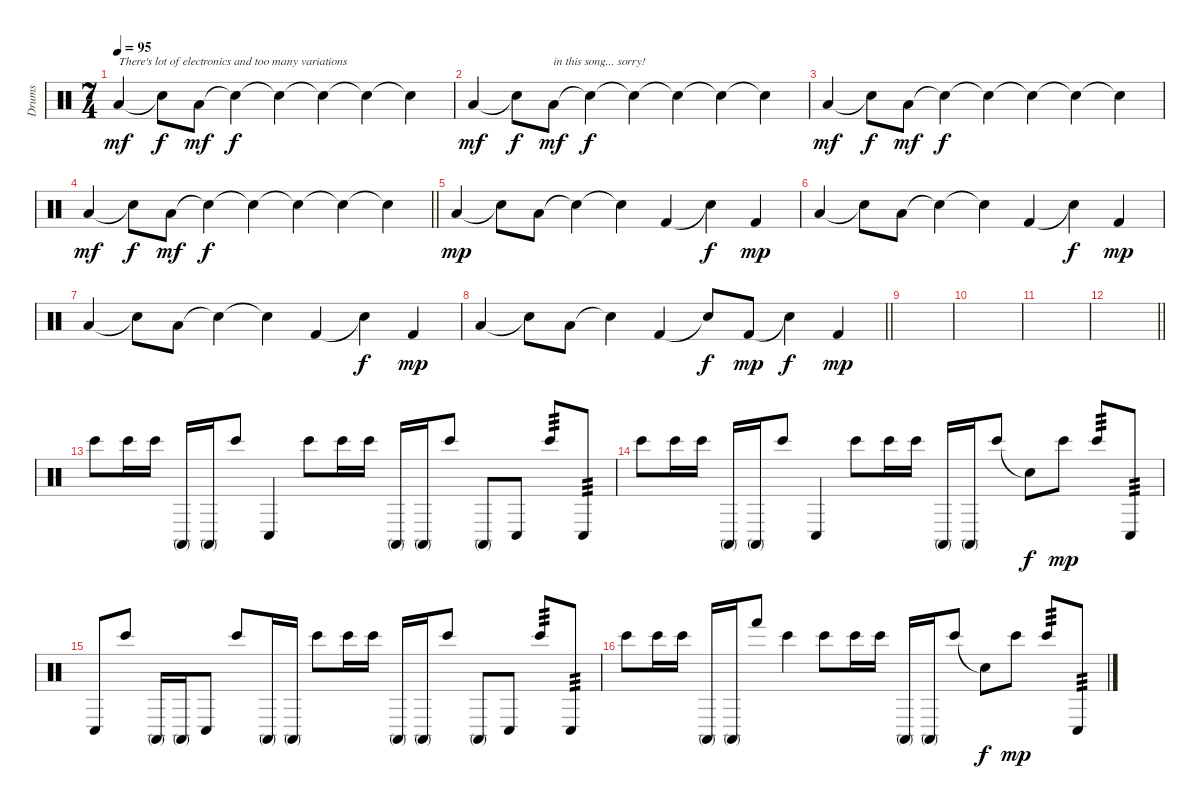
\track ("Drums" "Drums") {instrument percussion}
\staff {score}
\articulation defaults
\ts (7 4)
\tempo 95
\clef neutral
\ks c "Low Tom (hit)".4{txt "There's lot of electronics and too many variations" dy mf} "Snare (hit)"{t}.8{dy f} "Low Floor Tom (hit)".8{dy mf} "Snare (hit)"{t}.4{dy f} "Snare (hit)"{t}.4 "Snare (hit)"{t}.4 "Snare (hit)"{t}.4 "Snare (hit)"{t}.4
|
"Low Tom (hit)".4{dy mf} "Snare (hit)"{t}.8{dy f} "Low Floor Tom (hit)".8{txt "in this song... sorry!" dy mf} "Snare (hit)"{t}.4{dy f} "Snare (hit)"{t}.4 "Snare (hit)"{t}.4 "Snare (hit)"{t}.4 "Snare (hit)"{t}.4 |
"Low Tom (hit)".4{dy mf} "Snare (hit)"{t}.8{dy f} "Low Floor Tom (hit)".8{dy mf} "Snare (hit)"{t}.4{dy f} "Snare (hit)"{t}.4 "Snare (hit)"{t}.4 "Snare (hit)"{t}.4 "Snare (hit)"{t}.4 |
\barLineRight lightlight "Low Tom (hit)".4{dy mf} "Snare (hit)"{t}.8{dy f} "Low Floor Tom (hit)".8{dy mf} "Snare (hit)"{t}.4{dy f} "Snare (hit)"{t}.4 "Snare (hit)"{t}.4 "Snare (hit)"{t}.4 "Snare (hit)"{t}.4
|
\section ("" "")
"Low Tom (hit)".4{dy mp} "Snare (hit)"{t}.8 "Low Floor Tom (hit)".8 "Snare (hit)"{t}.4 "Snare (hit)"{t}.4 "Kick (hit) 2".4 "Snare (hit)"{t}.4{dy f} "Kick (hit) 2".4{dy mp} |
"Low Tom (hit)".4 "Snare (hit)"{t}.8 "Low Floor Tom (hit)".8 "Snare (hit)"{t}.4 "Snare (hit)"{t}.4 "Kick (hit) 2".4 "Snare (hit)"{t}.4{dy f} "Kick (hit) 2".4{dy mp} |
"Low Tom (hit)".4 "Snare (hit)"{t}.8 "Low Floor Tom (hit)".8 "Snare (hit)"{t}.4 "Snare (hit)"{t}.4 "Kick (hit) 2".4 "Snare (hit)"{t}.4{dy f} "Kick (hit) 2".4{dy mp} |
\barLineRight lightlight "Low Tom (hit)".4 "Snare (hit)"{t}.8 "Low Floor Tom (hit)".8 "Snare (hit)"{t}.4 "Kick (hit) 2".4 "Snare (hit)"{t}.8{dy f} "Kick (hit) 2".8{dy mp} "Snare (hit)"{t}.4{dy f} "Kick (hit) 2".4{dy mp}
|
\section ("" "")
|
|
|
\barLineRight lightlight
|
\section ("" "")
"Bongo High (hit)".8 "Bongo High (hit)".16 "Bongo High (hit)".16 "Conga high (mute)".16 "Conga high (mute)".16 "Bongo High (hit)".8 "Conga low (hit)".4 "Bongo High (hit)".8 "Bongo High (hit)".16 "Bongo High (hit)".16 "Conga high (mute)".16 "Conga high (mute)".16 "Bongo High (hit)".8 "Conga high (mute)".8 "Conga low (hit)".8 "Bongo High (hit)".8{tp 3} "Conga low (hit)".8{tp 3} |
"Bongo High (hit)".8 "Bongo High (hit)".16 "Bongo High (hit)".16 "Conga high (mute)".16 "Conga high (mute)".16 "Bongo High (hit)".8 "Conga low (hit)".4 "Bongo High (hit)".8 "Bongo High (hit)".16 "Bongo High (hit)".16 "Conga high (mute)".16 "Conga high (mute)".16 "Bongo High (hit)".8 "Snare (hit)"{t}.8{dy f} "Bongo High (hit)".8{dy mp} "Bongo High (hit)".8{tp 3} "Conga low (hit)".8{tp 3} |
"Conga low (hit)".8 "Bongo High (hit)".8 "Conga high (mute)".16 "Conga high (mute)".16 "Conga low (hit)".8 "Bongo High (hit)".8 "Conga high (mute)".16 "Conga high (mute)".16 "Bongo High (hit)".8 "Bongo High (hit)".16 "Bongo High (hit)".16 "Conga high (mute)".16 "Conga high (mute)".16 "Bongo High (hit)".8 "Conga high (mute)".8 "Conga low (hit)".8 "Bongo High (hit)".8{tp 3} "Conga low (hit)".8{tp 3} |
"Bongo High (hit)".8 "Bongo High (hit)".16 "Bongo High (hit)".16 "Conga high (mute)".16 "Conga high (mute)".16 "Hand (hit)".8 "Bongo High (hit)".4 "Bongo High (hit)".8 "Bongo High (hit)".16 "Bongo High (hit)".16 "Conga high (mute)".16 "Conga high (mute)".16 "Bongo High (hit)".8 "Snare (hit)"{t}.8{dy f} "Bongo High (hit)".8{dy mp} "Bongo High (hit)".8{tp 3} "Conga low (hit)".8{tp 3}
